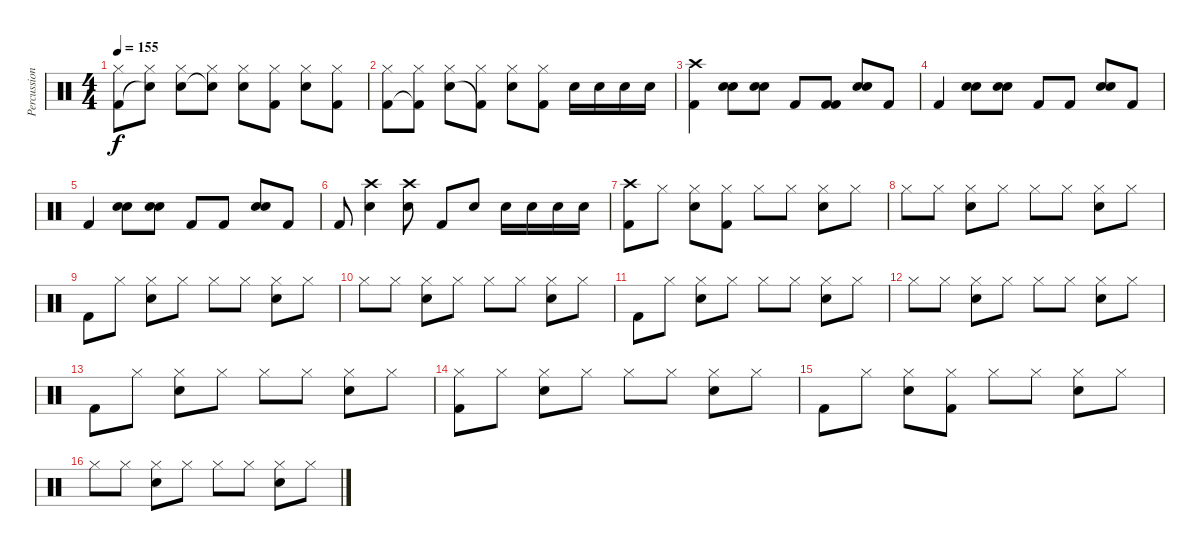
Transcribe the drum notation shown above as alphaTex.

\track ("Percussion" "Percussion") {instrument percussion}
\staff {score}
\articulation defaults
\ts (4 4)
\tempo 155
\clef neutral
\ks c
("Kick (hit) 2" "Hi-Hat (closed)").8{dy f} ("Electric Snare (hit)"{t} "Hi-Hat (closed)").8 ("Electric Snare (hit)" "Hi-Hat (closed)").8 ("Electric Snare (hit)"{t} "Hi-Hat (closed)").8 ("Electric Snare (hit)" "Hi-Hat (closed)").8 ("Kick (hit) 2" "Hi-Hat (closed)").8 ("Electric Snare (hit)" "Hi-Hat (closed)").8 ("Kick (hit) 2" "Hi-Hat (closed)").8 |
("Kick (hit) 2" "Hi-Hat (closed)").8 ("Kick (hit) 2"{t} "Hi-Hat (closed)").8 ("Electric Snare (hit)" "Hi-Hat (closed)").8 ("Kick (hit) 2"{t} "Hi-Hat (closed)").8 ("Electric Snare (hit)" "Hi-Hat (closed)").8 ("Kick (hit) 2" "Hi-Hat (closed)").8 "Electric Snare (hit)".16 "Electric Snare (hit)".16 "Electric Snare (hit)".16 "Electric Snare (hit)".16 |
("Kick (hit) 2" "Crash high (hit)").4 ("Electric Snare (hit)" "Electric Snare (hit)").8 ("Electric Snare (hit)" "Electric Snare (hit)").8 "Kick (hit) 2".8 ("Kick (hit) 2" "Kick (hit) 2").8 ("Electric Snare (hit)" "Electric Snare (hit)").8 "Kick (hit) 2".8 |
"Kick (hit) 2".4 ("Electric Snare (hit)" "Electric Snare (hit)").8 ("Electric Snare (hit)" "Electric Snare (hit)").8 "Kick (hit) 2".8 "Kick (hit) 2".8 ("Electric Snare (hit)" "Electric Snare (hit)").8 "Kick (hit) 2".8 |
"Kick (hit) 2".4 ("Electric Snare (hit)" "Electric Snare (hit)").8 ("Electric Snare (hit)" "Electric Snare (hit)").8 "Kick (hit) 2".8 "Kick (hit) 2".8 ("Electric Snare (hit)" "Electric Snare (hit)").8 "Kick (hit) 2".8 |
"Kick (hit) 2".8 ("Crash high (hit)" "Electric Snare (hit)").4 ("Crash high (hit)" "Electric Snare (hit)").8 "Kick (hit) 2".8 "Electric Snare (hit)".8 "Electric Snare (hit)".16 "Electric Snare (hit)".16 "Electric Snare (hit)".16 "Electric Snare (hit)".16 |
("Crash high (hit)" "Kick (hit) 2").8 "Hi-Hat (closed)".8 ("Hi-Hat (closed)" "Electric Snare (hit)").8 ("Hi-Hat (closed)" "Kick (hit) 2").8 "Hi-Hat (closed)".8 "Hi-Hat (closed)".8 ("Hi-Hat (closed)" "Electric Snare (hit)").8 "Hi-Hat (closed)".8 |
"Hi-Hat (closed)".8 "Hi-Hat (closed)".8 ("Hi-Hat (closed)" "Electric Snare (hit)").8 "Hi-Hat (closed)".8 "Hi-Hat (closed)".8 "Hi-Hat (closed)".8 ("Hi-Hat (closed)" "Electric Snare (hit)").8 "Hi-Hat (closed)".8 |
"Kick (hit) 2".8 "Hi-Hat (closed)".8 ("Hi-Hat (closed)" "Electric Snare (hit)").8 "Hi-Hat (closed)".8 "Hi-Hat (closed)".8 "Hi-Hat (closed)".8 ("Hi-Hat (closed)" "Electric Snare (hit)").8 "Hi-Hat (closed)".8 |
"Hi-Hat (closed)".8 "Hi-Hat (closed)".8 ("Hi-Hat (closed)" "Electric Snare (hit)").8 "Hi-Hat (closed)".8 "Hi-Hat (closed)".8 "Hi-Hat (closed)".8 ("Hi-Hat (closed)" "Electric Snare (hit)").8 "Hi-Hat (closed)".8 |
"Kick (hit) 2".8 "Hi-Hat (closed)".8 ("Hi-Hat (closed)" "Electric Snare (hit)").8 "Hi-Hat (closed)".8 "Hi-Hat (closed)".8 "Hi-Hat (closed)".8 ("Hi-Hat (closed)" "Electric Snare (hit)").8 "Hi-Hat (closed)".8 |
"Hi-Hat (closed)".8 "Hi-Hat (closed)".8 ("Hi-Hat (closed)" "Electric Snare (hit)").8 "Hi-Hat (closed)".8 "Hi-Hat (closed)".8 "Hi-Hat (closed)".8 ("Hi-Hat (closed)" "Electric Snare (hit)").8 "Hi-Hat (closed)".8 |
"Kick (hit) 2".8 "Hi-Hat (closed)".8 ("Hi-Hat (closed)" "Electric Snare (hit)").8 "Hi-Hat (closed)".8 "Hi-Hat (closed)".8 "Hi-Hat (closed)".8 ("Hi-Hat (closed)" "Electric Snare (hit)").8 "Hi-Hat (closed)".8 |
("Hi-Hat (closed)" "Kick (hit) 2").8 "Hi-Hat (closed)".8 ("Hi-Hat (closed)" "Electric Snare (hit)").8 "Hi-Hat (closed)".8 "Hi-Hat (closed)".8 "Hi-Hat (closed)".8 ("Hi-Hat (closed)" "Electric Snare (hit)").8 "Hi-Hat (closed)".8 |
"Kick (hit) 2".8 "Hi-Hat (closed)".8 ("Hi-Hat (closed)" "Electric Snare (hit)").8 ("Hi-Hat (closed)" "Kick (hit) 2").8 "Hi-Hat (closed)".8 "Hi-Hat (closed)".8 ("Hi-Hat (closed)" "Electric Snare (hit)").8 "Hi-Hat (closed)".8 |
"Hi-Hat (closed)".8 "Hi-Hat (closed)".8 ("Hi-Hat (closed)" "Electric Snare (hit)").8 "Hi-Hat (closed)".8 "Hi-Hat (closed)".8 "Hi-Hat (closed)".8 ("Hi-Hat (closed)" "Electric Snare (hit)").8 "Hi-Hat (closed)".8
